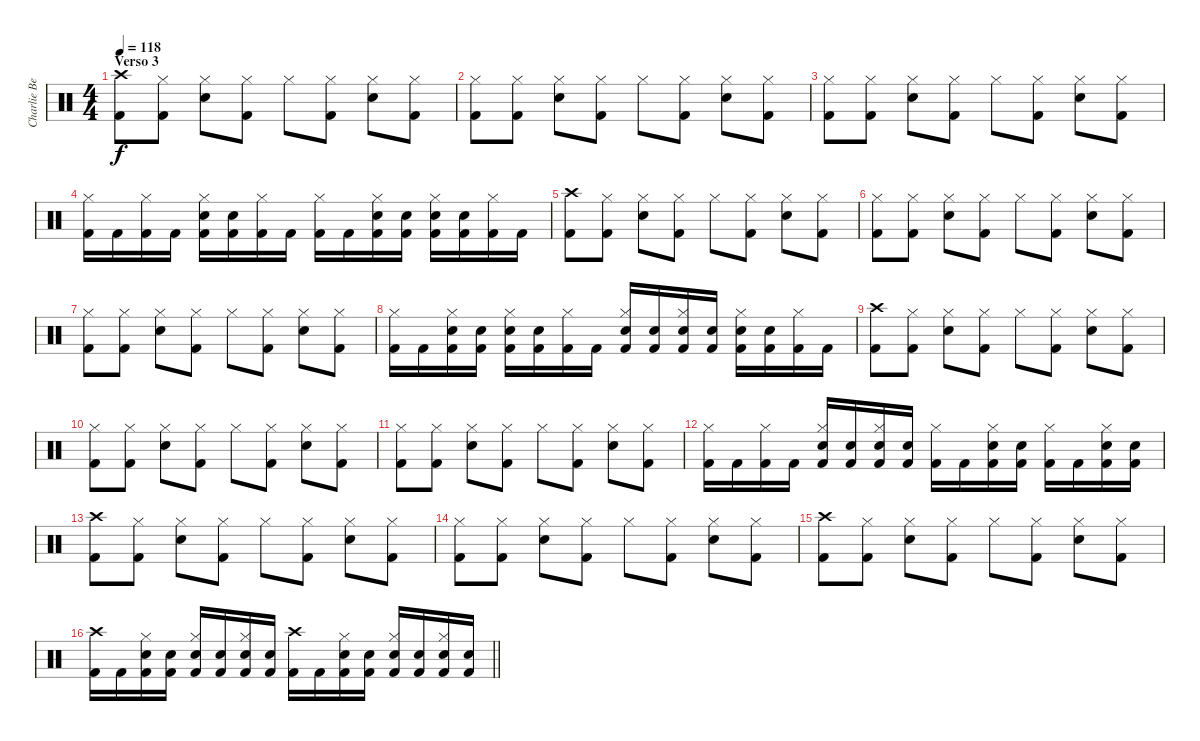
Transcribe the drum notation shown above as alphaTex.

\track ("Charlie Benante" "Charlie Be") {instrument percussion}
\staff {score}
\articulation defaults
\ts (4 4)
\section ("" "Verso 3")
\tempo 118
\clef neutral
\ks c
("Crash high (hit)" "Kick (hit) 2").8{dy f} ("Hi-Hat (closed)" "Kick (hit) 2").8 ("Hi-Hat (closed)" "Snare (hit) 2").8 ("Hi-Hat (closed)" "Kick (hit) 2").8 "Hi-Hat (closed)".8 ("Hi-Hat (closed)" "Kick (hit) 2").8 ("Hi-Hat (closed)" "Snare (hit) 2").8 ("Hi-Hat (closed)" "Kick (hit) 2").8 |
("Hi-Hat (closed)" "Kick (hit) 2").8 ("Hi-Hat (closed)" "Kick (hit) 2").8 ("Hi-Hat (closed)" "Snare (hit) 2").8 ("Hi-Hat (closed)" "Kick (hit) 2").8 "Hi-Hat (closed)".8 ("Hi-Hat (closed)" "Kick (hit) 2").8 ("Hi-Hat (closed)" "Snare (hit) 2").8 ("Hi-Hat (closed)" "Kick (hit) 2").8 |
("Hi-Hat (closed)" "Kick (hit) 2").8 ("Hi-Hat (closed)" "Kick (hit) 2").8 ("Hi-Hat (closed)" "Snare (hit) 2").8 ("Hi-Hat (closed)" "Kick (hit) 2").8 "Hi-Hat (closed)".8 ("Hi-Hat (closed)" "Kick (hit) 2").8 ("Hi-Hat (closed)" "Snare (hit) 2").8 ("Hi-Hat (closed)" "Kick (hit) 2").8 |
("Hi-Hat (closed)" "Kick (hit) 2").16 "Kick (hit) 2".16 ("Hi-Hat (closed)" "Kick (hit) 2").16 "Kick (hit) 2".16 ("Hi-Hat (closed)" "Snare (hit) 2" "Kick (hit) 2").16 ("Snare (hit) 2" "Kick (hit) 2").16 ("Hi-Hat (closed)" "Kick (hit) 2").16 "Kick (hit) 2".16 ("Hi-Hat (closed)" "Kick (hit) 2").16 "Kick (hit) 2".16 ("Hi-Hat (closed)" "Snare (hit) 2" "Kick (hit) 2").16 ("Snare (hit) 2" "Kick (hit) 2").16 ("Hi-Hat (closed)" "Snare (hit) 2" "Kick (hit) 2").16 ("Snare (hit) 2" "Kick (hit) 2").16 ("Hi-Hat (closed)" "Kick (hit) 2").16 "Kick (hit) 2".16 |
("Crash high (hit)" "Kick (hit) 2").8 ("Hi-Hat (closed)" "Kick (hit) 2").8 ("Hi-Hat (closed)" "Snare (hit) 2").8 ("Hi-Hat (closed)" "Kick (hit) 2").8 "Hi-Hat (closed)".8 ("Hi-Hat (closed)" "Kick (hit) 2").8 ("Hi-Hat (closed)" "Snare (hit) 2").8 ("Hi-Hat (closed)" "Kick (hit) 2").8 |
("Hi-Hat (closed)" "Kick (hit) 2").8 ("Hi-Hat (closed)" "Kick (hit) 2").8 ("Hi-Hat (closed)" "Snare (hit) 2").8 ("Hi-Hat (closed)" "Kick (hit) 2").8 "Hi-Hat (closed)".8 ("Hi-Hat (closed)" "Kick (hit) 2").8 ("Hi-Hat (closed)" "Snare (hit) 2").8 ("Hi-Hat (closed)" "Kick (hit) 2").8 |
("Hi-Hat (closed)" "Kick (hit) 2").8 ("Hi-Hat (closed)" "Kick (hit) 2").8 ("Hi-Hat (closed)" "Snare (hit) 2").8 ("Hi-Hat (closed)" "Kick (hit) 2").8 "Hi-Hat (closed)".8 ("Hi-Hat (closed)" "Kick (hit) 2").8 ("Hi-Hat (closed)" "Snare (hit) 2").8 ("Hi-Hat (closed)" "Kick (hit) 2").8 |
("Hi-Hat (closed)" "Kick (hit) 2").16 "Kick (hit) 2".16 ("Hi-Hat (closed)" "Snare (hit) 2" "Kick (hit) 2").16 ("Snare (hit) 2" "Kick (hit) 2").16 ("Hi-Hat (closed)" "Snare (hit) 2" "Kick (hit) 2").16 ("Snare (hit) 2" "Kick (hit) 2").16 ("Hi-Hat (closed)" "Kick (hit) 2").16 "Kick (hit) 2".16 ("Hi-Hat (closed)" "Snare (hit) 2" "Kick (hit) 2").16 ("Snare (hit) 2" "Kick (hit) 2").16 ("Hi-Hat (closed)" "Snare (hit) 2" "Kick (hit) 2").16 ("Snare (hit) 2" "Kick (hit) 2").16 ("Hi-Hat (closed)" "Snare (hit) 2" "Kick (hit) 2").16 ("Snare (hit) 2" "Kick (hit) 2").16 ("Hi-Hat (closed)" "Kick (hit) 2").16 "Kick (hit) 2".16 |
("Crash high (hit)" "Kick (hit) 2").8 ("Hi-Hat (closed)" "Kick (hit) 2").8 ("Hi-Hat (closed)" "Snare (hit) 2").8 ("Hi-Hat (closed)" "Kick (hit) 2").8 "Hi-Hat (closed)".8 ("Hi-Hat (closed)" "Kick (hit) 2").8 ("Hi-Hat (closed)" "Snare (hit) 2").8 ("Hi-Hat (closed)" "Kick (hit) 2").8 |
("Hi-Hat (closed)" "Kick (hit) 2").8 ("Hi-Hat (closed)" "Kick (hit) 2").8 ("Hi-Hat (closed)" "Snare (hit) 2").8 ("Hi-Hat (closed)" "Kick (hit) 2").8 "Hi-Hat (closed)".8 ("Hi-Hat (closed)" "Kick (hit) 2").8 ("Hi-Hat (closed)" "Snare (hit) 2").8 ("Hi-Hat (closed)" "Kick (hit) 2").8 |
("Hi-Hat (closed)" "Kick (hit) 2").8 ("Hi-Hat (closed)" "Kick (hit) 2").8 ("Hi-Hat (closed)" "Snare (hit) 2").8 ("Hi-Hat (closed)" "Kick (hit) 2").8 "Hi-Hat (closed)".8 ("Hi-Hat (closed)" "Kick (hit) 2").8 ("Hi-Hat (closed)" "Snare (hit) 2").8 ("Hi-Hat (closed)" "Kick (hit) 2").8 |
("Hi-Hat (closed)" "Kick (hit) 2").16 "Kick (hit) 2".16 ("Hi-Hat (closed)" "Kick (hit) 2").16 "Kick (hit) 2".16 ("Hi-Hat (closed)" "Snare (hit) 2" "Kick (hit) 2").16 ("Snare (hit) 2" "Kick (hit) 2").16 ("Hi-Hat (closed)" "Snare (hit) 2" "Kick (hit) 2").16 ("Snare (hit) 2" "Kick (hit) 2").16 ("Hi-Hat (closed)" "Kick (hit) 2").16 "Kick (hit) 2".16 ("Hi-Hat (closed)" "Snare (hit) 2" "Kick (hit) 2").16 ("Snare (hit) 2" "Kick (hit) 2").16 ("Hi-Hat (closed)" "Kick (hit) 2").16 "Kick (hit) 2".16 ("Hi-Hat (closed)" "Snare (hit) 2" "Kick (hit) 2").16 ("Snare (hit) 2" "Kick (hit) 2").16 |
("Crash high (hit)" "Kick (hit) 2").8 ("Hi-Hat (closed)" "Kick (hit) 2").8 ("Hi-Hat (closed)" "Snare (hit) 2").8 ("Hi-Hat (closed)" "Kick (hit) 2").8 "Hi-Hat (closed)".8 ("Hi-Hat (closed)" "Kick (hit) 2").8 ("Hi-Hat (closed)" "Snare (hit) 2").8 ("Hi-Hat (closed)" "Kick (hit) 2").8 |
("Hi-Hat (closed)" "Kick (hit) 2").8 ("Hi-Hat (closed)" "Kick (hit) 2").8 ("Hi-Hat (closed)" "Snare (hit) 2").8 ("Hi-Hat (closed)" "Kick (hit) 2").8 "Hi-Hat (closed)".8 ("Hi-Hat (closed)" "Kick (hit) 2").8 ("Hi-Hat (closed)" "Snare (hit) 2").8 ("Hi-Hat (closed)" "Kick (hit) 2").8 |
("Crash high (hit)" "Kick (hit) 2").8 ("Hi-Hat (closed)" "Kick (hit) 2").8 ("Hi-Hat (closed)" "Snare (hit) 2").8 ("Hi-Hat (closed)" "Kick (hit) 2").8 "Hi-Hat (closed)".8 ("Hi-Hat (closed)" "Kick (hit) 2").8 ("Hi-Hat (closed)" "Snare (hit) 2").8 ("Hi-Hat (closed)" "Kick (hit) 2").8 |
\barLineRight lightlight
("Crash high (hit)" "Kick (hit) 2").16 "Kick (hit) 2".16 ("Hi-Hat (closed)" "Snare (hit) 2" "Kick (hit) 2").16 ("Snare (hit) 2" "Kick (hit) 2").16 ("Hi-Hat (closed)" "Snare (hit) 2" "Kick (hit) 2").16 ("Snare (hit) 2" "Kick (hit) 2").16 ("Hi-Hat (closed)" "Snare (hit) 2" "Kick (hit) 2").16 ("Snare (hit) 2" "Kick (hit) 2").16 ("Crash high (hit)" "Kick (hit) 2").16 "Kick (hit) 2".16 ("Hi-Hat (closed)" "Snare (hit) 2" "Kick (hit) 2").16 ("Snare (hit) 2" "Kick (hit) 2").16 ("Hi-Hat (closed)" "Snare (hit) 2" "Kick (hit) 2").16 ("Snare (hit) 2" "Kick (hit) 2").16 ("Hi-Hat (closed)" "Snare (hit) 2" "Kick (hit) 2").16 ("Snare (hit) 2" "Kick (hit) 2").16
